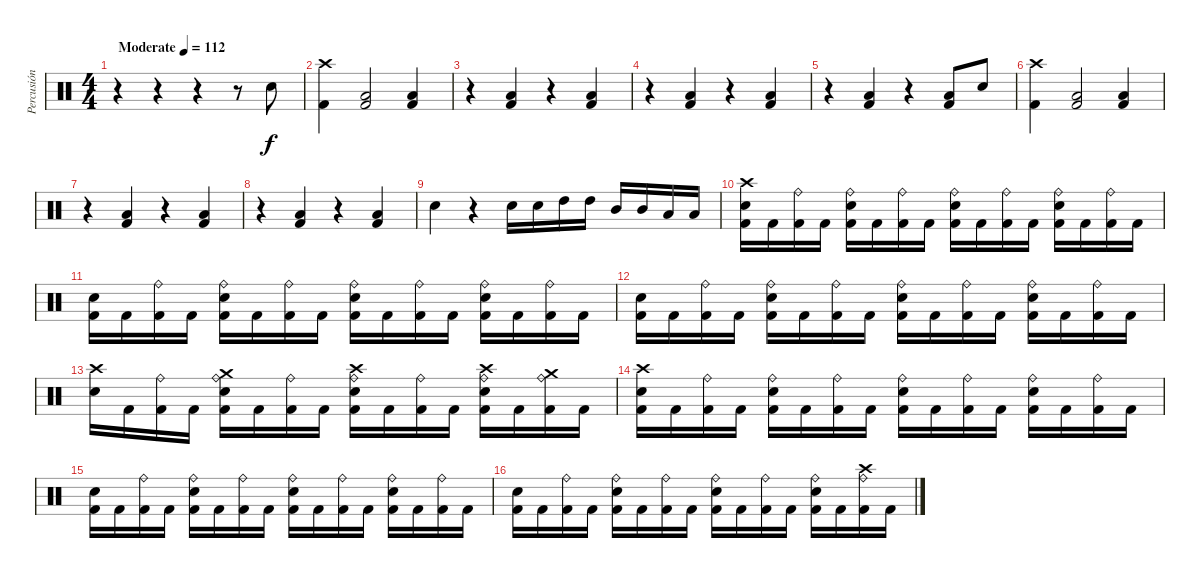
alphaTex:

\track ("Percusión" "Percusión") {instrument percussion}
\staff {score}
\articulation defaults
\ts (4 4)
\tempo (112 "Moderate")
\clef neutral
\ks c
r.4{dy f} r.4 r.4 r.8 "Snare (hit) 2".8 |
("Kick (hit) 2" "Crash high (hit)").4 ("Low Tom (hit)" "Kick (hit) 2").2 ("Low Tom (hit)" "Kick (hit) 2").4 |
r.4 ("Low Tom (hit)" "Kick (hit) 2").4 r.4 ("Low Tom (hit)" "Kick (hit) 2").4 |
r.4 ("Low Tom (hit)" "Kick (hit) 2").4 r.4 ("Low Tom (hit)" "Kick (hit) 2").4 |
r.4 ("Low Tom (hit)" "Kick (hit) 2").4 r.4 ("Low Tom (hit)" "Kick (hit) 2").8 "Snare (hit) 2".8 |
("Kick (hit) 2" "Crash high (hit)").4 ("Low Tom (hit)" "Kick (hit) 2").2 ("Low Tom (hit)" "Kick (hit) 2").4 |
r.4 ("Low Tom (hit)" "Kick (hit) 2").4 r.4 ("Low Tom (hit)" "Kick (hit) 2").4 |
r.4 ("Low Tom (hit)" "Kick (hit) 2").4 r.4 ("Low Tom (hit)" "Kick (hit) 2").4 |
"Snare (hit) 2".4 r.4 "Snare (hit) 2".16 "Snare (hit) 2".16 "High Tom (hit)".16 "High Tom (hit)".16 "Mid Tom (hit)".16 "Mid Tom (hit)".16 "Low Tom (hit)".16 "Low Tom (hit)".16 |
("Snare (hit) 2" "Crash high (hit)" "Kick (hit) 2").16 "Kick (hit) 2".16 ("Ride (bell)" "Kick (hit) 2").16 "Kick (hit) 2".16 ("Ride (bell)" "Snare (hit) 2" "Kick (hit) 2").16 "Kick (hit) 2".16 ("Ride (bell)" "Kick (hit) 2").16 "Kick (hit) 2".16 ("Ride (bell)" "Snare (hit) 2" "Kick (hit) 2").16 "Kick (hit) 2".16 ("Ride (bell)" "Kick (hit) 2").16 "Kick (hit) 2".16 ("Ride (bell)" "Snare (hit) 2" "Kick (hit) 2").16 "Kick (hit) 2".16 ("Ride (bell)" "Kick (hit) 2").16 "Kick (hit) 2".16 |
("Snare (hit) 2" "Kick (hit) 2").16 "Kick (hit) 2".16 ("Ride (bell)" "Kick (hit) 2").16 "Kick (hit) 2".16 ("Ride (bell)" "Snare (hit) 2" "Kick (hit) 2").16 "Kick (hit) 2".16 ("Ride (bell)" "Kick (hit) 2").16 "Kick (hit) 2".16 ("Ride (bell)" "Snare (hit) 2" "Kick (hit) 2").16 "Kick (hit) 2".16 ("Ride (bell)" "Kick (hit) 2").16 "Kick (hit) 2".16 ("Ride (bell)" "Snare (hit) 2" "Kick (hit) 2").16 "Kick (hit) 2".16 ("Ride (bell)" "Kick (hit) 2").16 "Kick (hit) 2".16 |
("Snare (hit) 2" "Kick (hit) 2").16 "Kick (hit) 2".16 ("Ride (bell)" "Kick (hit) 2").16 "Kick (hit) 2".16 ("Ride (bell)" "Snare (hit) 2" "Kick (hit) 2").16 "Kick (hit) 2".16 ("Ride (bell)" "Kick (hit) 2").16 "Kick (hit) 2".16 ("Ride (bell)" "Snare (hit) 2" "Kick (hit) 2").16 "Kick (hit) 2".16 ("Ride (bell)" "Kick (hit) 2").16 "Kick (hit) 2".16 ("Ride (bell)" "Snare (hit) 2" "Kick (hit) 2").16 "Kick (hit) 2".16 ("Ride (bell)" "Kick (hit) 2").16 "Kick (hit) 2".16 |
("Snare (hit) 2" "Crash high (hit)").16 "Kick (hit) 2".16 ("Ride (bell)" "Kick (hit) 2").16 "Kick (hit) 2".16 ("Ride (bell)" "Snare (hit) 2" "Crash medium (hit)" "Kick (hit) 2").16 "Kick (hit) 2".16 ("Ride (bell)" "Kick (hit) 2").16 "Kick (hit) 2".16 ("Ride (bell)" "Snare (hit) 2" "Crash high (hit)" "Kick (hit) 2").16 "Kick (hit) 2".16 ("Ride (bell)" "Kick (hit) 2").16 "Kick (hit) 2".16 ("Ride (bell)" "Snare (hit) 2" "Crash high (hit)" "Kick (hit) 2").16 "Kick (hit) 2".16 ("Ride (bell)" "Crash medium (hit)" "Kick (hit) 2").16 "Kick (hit) 2".16 |
("Snare (hit) 2" "Crash high (hit)" "Kick (hit) 2").16 "Kick (hit) 2".16 ("Ride (bell)" "Kick (hit) 2").16 "Kick (hit) 2".16 ("Ride (bell)" "Snare (hit) 2" "Kick (hit) 2").16 "Kick (hit) 2".16 ("Ride (bell)" "Kick (hit) 2").16 "Kick (hit) 2".16 ("Ride (bell)" "Snare (hit) 2" "Kick (hit) 2").16 "Kick (hit) 2".16 ("Ride (bell)" "Kick (hit) 2").16 "Kick (hit) 2".16 ("Ride (bell)" "Snare (hit) 2" "Kick (hit) 2").16 "Kick (hit) 2".16 ("Ride (bell)" "Kick (hit) 2").16 "Kick (hit) 2".16 |
("Snare (hit) 2" "Kick (hit) 2").16 "Kick (hit) 2".16 ("Ride (bell)" "Kick (hit) 2").16 "Kick (hit) 2".16 ("Ride (bell)" "Snare (hit) 2" "Kick (hit) 2").16 "Kick (hit) 2".16 ("Ride (bell)" "Kick (hit) 2").16 "Kick (hit) 2".16 ("Ride (bell)" "Snare (hit) 2" "Kick (hit) 2").16 "Kick (hit) 2".16 ("Ride (bell)" "Kick (hit) 2").16 "Kick (hit) 2".16 ("Ride (bell)" "Snare (hit) 2" "Kick (hit) 2").16 "Kick (hit) 2".16 ("Ride (bell)" "Kick (hit) 2").16 "Kick (hit) 2".16 |
("Snare (hit) 2" "Kick (hit) 2").16 "Kick (hit) 2".16 ("Ride (bell)" "Kick (hit) 2").16 "Kick (hit) 2".16 ("Ride (bell)" "Snare (hit) 2" "Kick (hit) 2").16 "Kick (hit) 2".16 ("Ride (bell)" "Kick (hit) 2").16 "Kick (hit) 2".16 ("Ride (bell)" "Snare (hit) 2" "Kick (hit) 2").16 "Kick (hit) 2".16 ("Ride (bell)" "Kick (hit) 2").16 "Kick (hit) 2".16 ("Ride (bell)" "Snare (hit) 2" "Kick (hit) 2").16 "Kick (hit) 2".16 ("Ride (bell)" "Kick (hit) 2" "Crash high (hit)").16 "Kick (hit) 2".16
